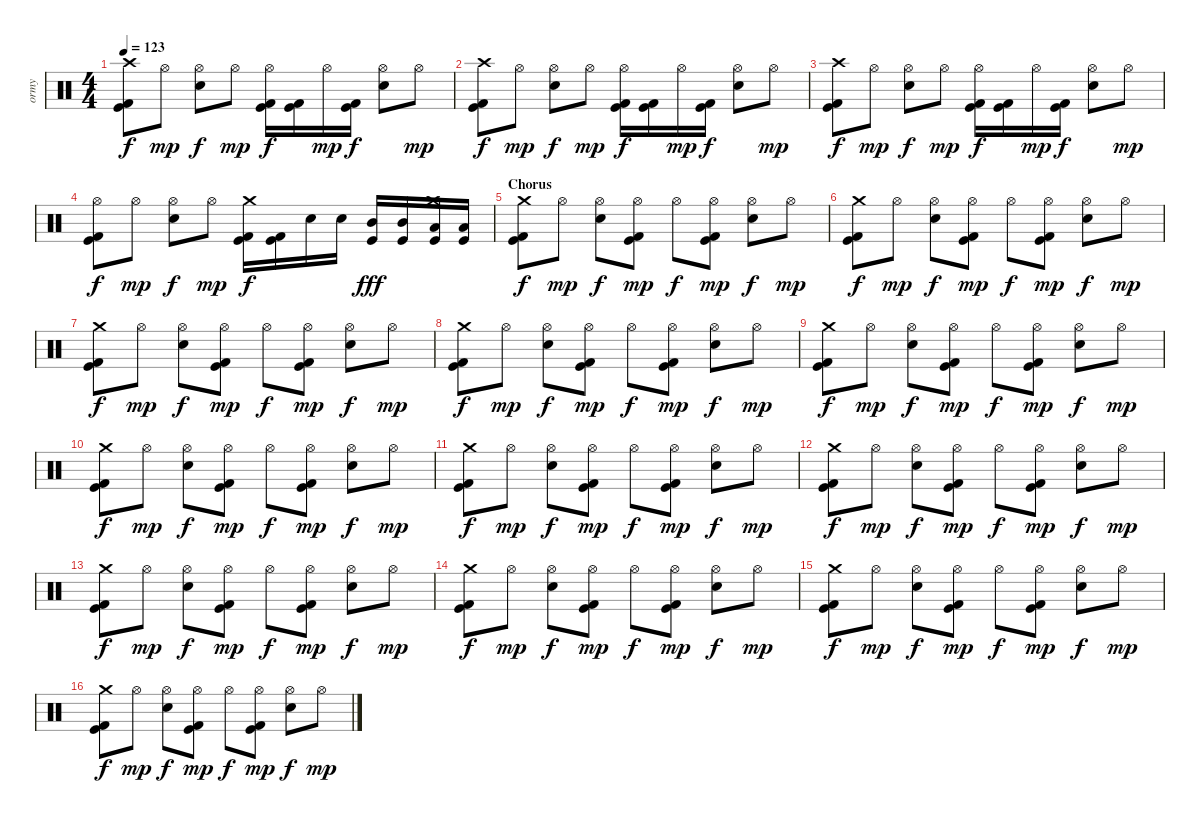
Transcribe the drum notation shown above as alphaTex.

\track ("ormy" "ormy") {instrument percussion}
\staff {score}
\articulation defaults
\ts (4 4)
\tempo 123
\clef neutral
\ks c
("Crash high (hit)" "Kick (hit) 2" "Kick (hit)").8{dy f} "Hi-Hat (open)".8{dy mp} ("Hi-Hat (open)" "Snare (hit) 2").8{dy f} "Hi-Hat (open)".8{dy mp} ("Hi-Hat (open)" "Kick (hit) 2" "Kick (hit)").16{dy f} ("Kick (hit) 2" "Kick (hit)").16 "Hi-Hat (open)".16{dy mp} ("Kick (hit) 2" "Kick (hit)").16{dy f} ("Hi-Hat (open)" "Snare (hit) 2").8 "Hi-Hat (open)".8{dy mp} |
("Crash high (hit)" "Kick (hit) 2" "Kick (hit)").8{dy f} "Hi-Hat (open)".8{dy mp} ("Hi-Hat (open)" "Snare (hit) 2").8{dy f} "Hi-Hat (open)".8{dy mp} ("Hi-Hat (open)" "Kick (hit) 2" "Kick (hit)").16{dy f} ("Kick (hit) 2" "Kick (hit)").16 "Hi-Hat (open)".16{dy mp} ("Kick (hit) 2" "Kick (hit)").16{dy f} ("Hi-Hat (open)" "Snare (hit) 2").8 "Hi-Hat (open)".8{dy mp} |
("Crash high (hit)" "Kick (hit) 2" "Kick (hit)").8{dy f} "Hi-Hat (open)".8{dy mp} ("Hi-Hat (open)" "Snare (hit) 2").8{dy f} "Hi-Hat (open)".8{dy mp} ("Hi-Hat (open)" "Kick (hit) 2" "Kick (hit)").16{dy f} ("Kick (hit) 2" "Kick (hit)").16 "Hi-Hat (open)".16{dy mp} ("Kick (hit) 2" "Kick (hit)").16{dy f} ("Hi-Hat (open)" "Snare (hit) 2").8 "Hi-Hat (open)".8{dy mp} |
("Hi-Hat (open)" "Kick (hit) 2" "Kick (hit)").8{dy f} "Hi-Hat (open)".8{dy mp} ("Hi-Hat (open)" "Snare (hit) 2").8{dy f} "Hi-Hat (open)".8{dy mp} ("Crash medium (hit)" "Kick (hit) 2" "Kick (hit)").16{dy f} ("Kick (hit) 2" "Kick (hit)").16 "Snare (hit) 2".16 "Snare (hit) 2".16 ("Mid Tom (hit)" "Kick (hit)").16{dy fff} ("Mid Tom (hit)" "Kick (hit)").16 ("Crash medium (hit)" "Low Tom (hit)" "Kick (hit)").16 ("Low Tom (hit)" "Kick (hit)").16 |
\section ("" "Chorus")
("Crash medium (hit)" "Kick (hit) 2" "Kick (hit)").8{dy f} "Hi-Hat (open)".8{dy mp} ("Hi-Hat (open)" "Snare (hit) 2").8{dy f} ("Hi-Hat (open)" "Kick (hit) 2" "Kick (hit)").8{dy mp} "Hi-Hat (open)".8{dy f} ("Hi-Hat (open)" "Kick (hit) 2" "Kick (hit)").8{dy mp} ("Hi-Hat (open)" "Snare (hit) 2").8{dy f} "Hi-Hat (open)".8{dy mp} |
("Crash medium (hit)" "Kick (hit) 2" "Kick (hit)").8{dy f} "Hi-Hat (open)".8{dy mp} ("Hi-Hat (open)" "Snare (hit) 2").8{dy f} ("Hi-Hat (open)" "Kick (hit) 2" "Kick (hit)").8{dy mp} "Hi-Hat (open)".8{dy f} ("Hi-Hat (open)" "Kick (hit) 2" "Kick (hit)").8{dy mp} ("Hi-Hat (open)" "Snare (hit) 2").8{dy f} "Hi-Hat (open)".8{dy mp} |
("Crash medium (hit)" "Kick (hit) 2" "Kick (hit)").8{dy f} "Hi-Hat (open)".8{dy mp} ("Hi-Hat (open)" "Snare (hit) 2").8{dy f} ("Hi-Hat (open)" "Kick (hit) 2" "Kick (hit)").8{dy mp} "Hi-Hat (open)".8{dy f} ("Hi-Hat (open)" "Kick (hit) 2" "Kick (hit)").8{dy mp} ("Hi-Hat (open)" "Snare (hit) 2").8{dy f} "Hi-Hat (open)".8{dy mp} |
("Crash medium (hit)" "Kick (hit) 2" "Kick (hit)").8{dy f} "Hi-Hat (open)".8{dy mp} ("Hi-Hat (open)" "Snare (hit) 2").8{dy f} ("Hi-Hat (open)" "Kick (hit) 2" "Kick (hit)").8{dy mp} "Hi-Hat (open)".8{dy f} ("Hi-Hat (open)" "Kick (hit) 2" "Kick (hit)").8{dy mp} ("Hi-Hat (open)" "Snare (hit) 2").8{dy f} "Hi-Hat (open)".8{dy mp} |
("Crash medium (hit)" "Kick (hit) 2" "Kick (hit)").8{dy f} "Hi-Hat (open)".8{dy mp} ("Hi-Hat (open)" "Snare (hit) 2").8{dy f} ("Hi-Hat (open)" "Kick (hit) 2" "Kick (hit)").8{dy mp} "Hi-Hat (open)".8{dy f} ("Hi-Hat (open)" "Kick (hit) 2" "Kick (hit)").8{dy mp} ("Hi-Hat (open)" "Snare (hit) 2").8{dy f} "Hi-Hat (open)".8{dy mp} |
("Crash medium (hit)" "Kick (hit) 2" "Kick (hit)").8{dy f} "Hi-Hat (open)".8{dy mp} ("Hi-Hat (open)" "Snare (hit) 2").8{dy f} ("Hi-Hat (open)" "Kick (hit) 2" "Kick (hit)").8{dy mp} "Hi-Hat (open)".8{dy f} ("Hi-Hat (open)" "Kick (hit) 2" "Kick (hit)").8{dy mp} ("Hi-Hat (open)" "Snare (hit) 2").8{dy f} "Hi-Hat (open)".8{dy mp} |
("Crash medium (hit)" "Kick (hit) 2" "Kick (hit)").8{dy f} "Hi-Hat (open)".8{dy mp} ("Hi-Hat (open)" "Snare (hit) 2").8{dy f} ("Hi-Hat (open)" "Kick (hit) 2" "Kick (hit)").8{dy mp} "Hi-Hat (open)".8{dy f} ("Hi-Hat (open)" "Kick (hit) 2" "Kick (hit)").8{dy mp} ("Hi-Hat (open)" "Snare (hit) 2").8{dy f} "Hi-Hat (open)".8{dy mp} |
("Crash medium (hit)" "Kick (hit) 2" "Kick (hit)").8{dy f} "Hi-Hat (open)".8{dy mp} ("Hi-Hat (open)" "Snare (hit) 2").8{dy f} ("Hi-Hat (open)" "Kick (hit) 2" "Kick (hit)").8{dy mp} "Hi-Hat (open)".8{dy f} ("Hi-Hat (open)" "Kick (hit) 2" "Kick (hit)").8{dy mp} ("Hi-Hat (open)" "Snare (hit) 2").8{dy f} "Hi-Hat (open)".8{dy mp} |
("Crash medium (hit)" "Kick (hit) 2" "Kick (hit)").8{dy f} "Hi-Hat (open)".8{dy mp} ("Hi-Hat (open)" "Snare (hit) 2").8{dy f} ("Hi-Hat (open)" "Kick (hit) 2" "Kick (hit)").8{dy mp} "Hi-Hat (open)".8{dy f} ("Hi-Hat (open)" "Kick (hit) 2" "Kick (hit)").8{dy mp} ("Hi-Hat (open)" "Snare (hit) 2").8{dy f} "Hi-Hat (open)".8{dy mp} |
("Crash medium (hit)" "Kick (hit) 2" "Kick (hit)").8{dy f} "Hi-Hat (open)".8{dy mp} ("Hi-Hat (open)" "Snare (hit) 2").8{dy f} ("Hi-Hat (open)" "Kick (hit) 2" "Kick (hit)").8{dy mp} "Hi-Hat (open)".8{dy f} ("Hi-Hat (open)" "Kick (hit) 2" "Kick (hit)").8{dy mp} ("Hi-Hat (open)" "Snare (hit) 2").8{dy f} "Hi-Hat (open)".8{dy mp} |
("Crash medium (hit)" "Kick (hit) 2" "Kick (hit)").8{dy f} "Hi-Hat (open)".8{dy mp} ("Hi-Hat (open)" "Snare (hit) 2").8{dy f} ("Hi-Hat (open)" "Kick (hit) 2" "Kick (hit)").8{dy mp} "Hi-Hat (open)".8{dy f} ("Hi-Hat (open)" "Kick (hit) 2" "Kick (hit)").8{dy mp} ("Hi-Hat (open)" "Snare (hit) 2").8{dy f} "Hi-Hat (open)".8{dy mp} |
("Crash medium (hit)" "Kick (hit) 2" "Kick (hit)").8{dy f} "Hi-Hat (open)".8{dy mp} ("Hi-Hat (open)" "Snare (hit) 2").8{dy f} ("Hi-Hat (open)" "Kick (hit) 2" "Kick (hit)").8{dy mp} "Hi-Hat (open)".8{dy f} ("Hi-Hat (open)" "Kick (hit) 2" "Kick (hit)").8{dy mp} ("Hi-Hat (open)" "Snare (hit) 2").8{dy f} "Hi-Hat (open)".8{dy mp}
